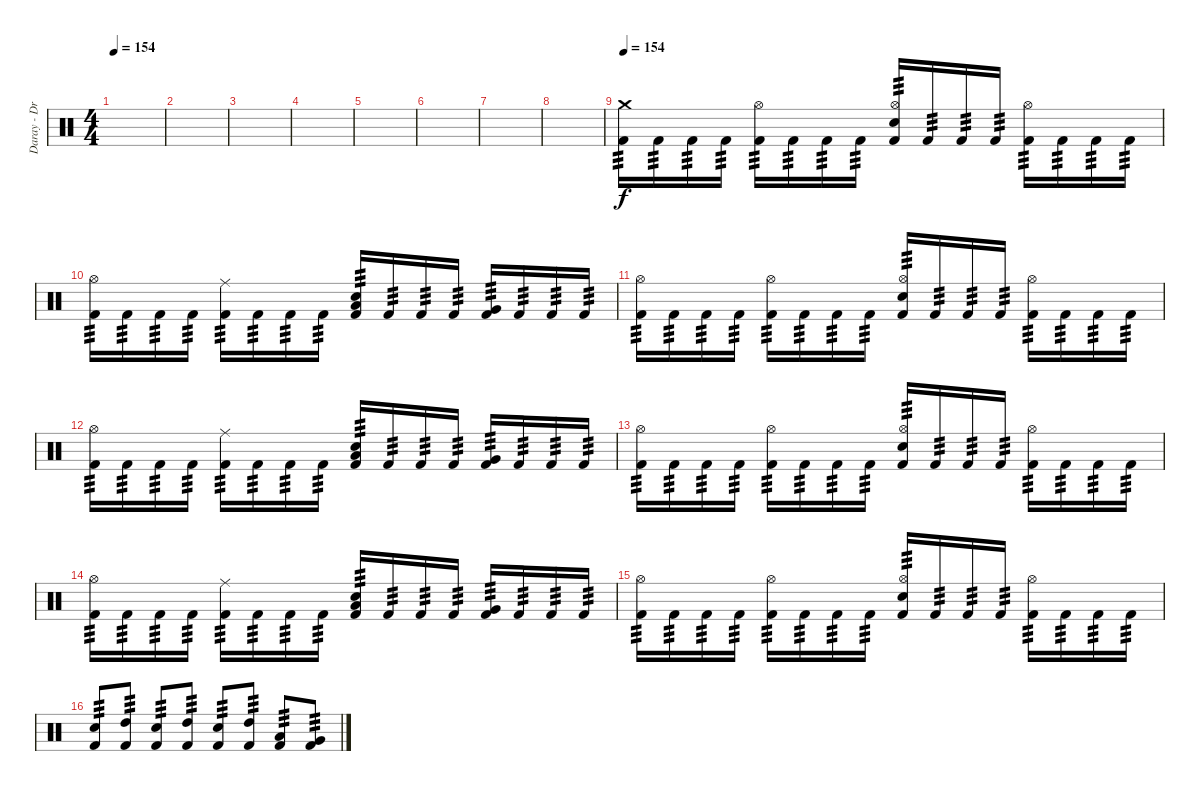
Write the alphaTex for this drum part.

\track ("Daray - Drums" "Daray - Dr") {instrument percussion}
\staff {score}
\articulation defaults
\ts (4 4)
\tempo 154
\tempo 77
\tempo 154
\clef neutral
\ks c
|
|
|
|
|
|
|
|
\tempo 154
("Crash medium (hit)" "Kick (hit) 2").16{tp 3} "Kick (hit) 2".16{tp 3} "Kick (hit) 2".16{tp 3} "Kick (hit) 2".16{tp 3} ("Hi-Hat (open)" "Kick (hit) 2").16{tp 3} "Kick (hit) 2".16{tp 3} "Kick (hit) 2".16{tp 3} "Kick (hit) 2".16{tp 3} ("Hi-Hat (open)" "Electric Snare (hit)" "Kick (hit) 2").16{tp 3} "Kick (hit) 2".16{tp 3} "Kick (hit) 2".16{tp 3} "Kick (hit) 2".16{tp 3} ("Hi-Hat (open)" "Kick (hit) 2").16{tp 3} "Kick (hit) 2".16{tp 3} "Kick (hit) 2".16{tp 3} "Kick (hit) 2".16{tp 3} |
("Hi-Hat (open)" "Kick (hit) 2").16{tp 3} "Kick (hit) 2".16{tp 3} "Kick (hit) 2".16{tp 3} "Kick (hit) 2".16{tp 3} ("Ride (middle)" "Kick (hit) 2").16{tp 3} "Kick (hit) 2".16{tp 3} "Kick (hit) 2".16{tp 3} "Kick (hit) 2".16{tp 3} ("Electric Snare (hit)" "Low Floor Tom (hit)" "Kick (hit) 2").16{tp 3} "Kick (hit) 2".16{tp 3} "Kick (hit) 2".16{tp 3} "Kick (hit) 2".16{tp 3} ("Very Low Tom (hit)" "Kick (hit) 2").16{tp 3} "Kick (hit) 2".16{tp 3} "Kick (hit) 2".16{tp 3} "Kick (hit) 2".16{tp 3} |
("Hi-Hat (open)" "Kick (hit) 2").16{tp 3} "Kick (hit) 2".16{tp 3} "Kick (hit) 2".16{tp 3} "Kick (hit) 2".16{tp 3} ("Hi-Hat (open)" "Kick (hit) 2").16{tp 3} "Kick (hit) 2".16{tp 3} "Kick (hit) 2".16{tp 3} "Kick (hit) 2".16{tp 3} ("Hi-Hat (open)" "Electric Snare (hit)" "Kick (hit) 2").16{tp 3} "Kick (hit) 2".16{tp 3} "Kick (hit) 2".16{tp 3} "Kick (hit) 2".16{tp 3} ("Hi-Hat (open)" "Kick (hit) 2").16{tp 3} "Kick (hit) 2".16{tp 3} "Kick (hit) 2".16{tp 3} "Kick (hit) 2".16{tp 3} |
("Hi-Hat (open)" "Kick (hit) 2").16{tp 3} "Kick (hit) 2".16{tp 3} "Kick (hit) 2".16{tp 3} "Kick (hit) 2".16{tp 3} ("Ride (middle)" "Kick (hit) 2").16{tp 3} "Kick (hit) 2".16{tp 3} "Kick (hit) 2".16{tp 3} "Kick (hit) 2".16{tp 3} ("Electric Snare (hit)" "Low Floor Tom (hit)" "Kick (hit) 2").16{tp 3} "Kick (hit) 2".16{tp 3} "Kick (hit) 2".16{tp 3} "Kick (hit) 2".16{tp 3} ("Very Low Tom (hit)" "Kick (hit) 2").16{tp 3} "Kick (hit) 2".16{tp 3} "Kick (hit) 2".16{tp 3} "Kick (hit) 2".16{tp 3} |
("Hi-Hat (open)" "Kick (hit) 2").16{tp 3} "Kick (hit) 2".16{tp 3} "Kick (hit) 2".16{tp 3} "Kick (hit) 2".16{tp 3} ("Hi-Hat (open)" "Kick (hit) 2").16{tp 3} "Kick (hit) 2".16{tp 3} "Kick (hit) 2".16{tp 3} "Kick (hit) 2".16{tp 3} ("Hi-Hat (open)" "Electric Snare (hit)" "Kick (hit) 2").16{tp 3} "Kick (hit) 2".16{tp 3} "Kick (hit) 2".16{tp 3} "Kick (hit) 2".16{tp 3} ("Hi-Hat (open)" "Kick (hit) 2").16{tp 3} "Kick (hit) 2".16{tp 3} "Kick (hit) 2".16{tp 3} "Kick (hit) 2".16{tp 3} |
("Hi-Hat (open)" "Kick (hit) 2").16{tp 3} "Kick (hit) 2".16{tp 3} "Kick (hit) 2".16{tp 3} "Kick (hit) 2".16{tp 3} ("Ride (middle)" "Kick (hit) 2").16{tp 3} "Kick (hit) 2".16{tp 3} "Kick (hit) 2".16{tp 3} "Kick (hit) 2".16{tp 3} ("Electric Snare (hit)" "Low Floor Tom (hit)" "Kick (hit) 2").16{tp 3} "Kick (hit) 2".16{tp 3} "Kick (hit) 2".16{tp 3} "Kick (hit) 2".16{tp 3} ("Very Low Tom (hit)" "Kick (hit) 2").16{tp 3} "Kick (hit) 2".16{tp 3} "Kick (hit) 2".16{tp 3} "Kick (hit) 2".16{tp 3} |
("Hi-Hat (open)" "Kick (hit) 2").16{tp 3} "Kick (hit) 2".16{tp 3} "Kick (hit) 2".16{tp 3} "Kick (hit) 2".16{tp 3} ("Hi-Hat (open)" "Kick (hit) 2").16{tp 3} "Kick (hit) 2".16{tp 3} "Kick (hit) 2".16{tp 3} "Kick (hit) 2".16{tp 3} ("Hi-Hat (open)" "Electric Snare (hit)" "Kick (hit) 2").16{tp 3} "Kick (hit) 2".16{tp 3} "Kick (hit) 2".16{tp 3} "Kick (hit) 2".16{tp 3} ("Hi-Hat (open)" "Kick (hit) 2").16{tp 3} "Kick (hit) 2".16{tp 3} "Kick (hit) 2".16{tp 3} "Kick (hit) 2".16{tp 3} |
("Electric Snare (hit)" "Kick (hit) 2").8{tp 3 dy f} ("High Tom (hit)" "Kick (hit) 2").8{tp 3} ("Electric Snare (hit)" "Kick (hit) 2").8{tp 3} ("High Tom (hit)" "Kick (hit) 2").8{tp 3} ("Electric Snare (hit)" "Kick (hit) 2").8{tp 3} ("High Tom (hit)" "Kick (hit) 2").8{tp 3} ("Low Tom (hit)" "Kick (hit) 2").8{tp 3} ("Very Low Tom (hit)" "Kick (hit) 2").8{tp 3}
